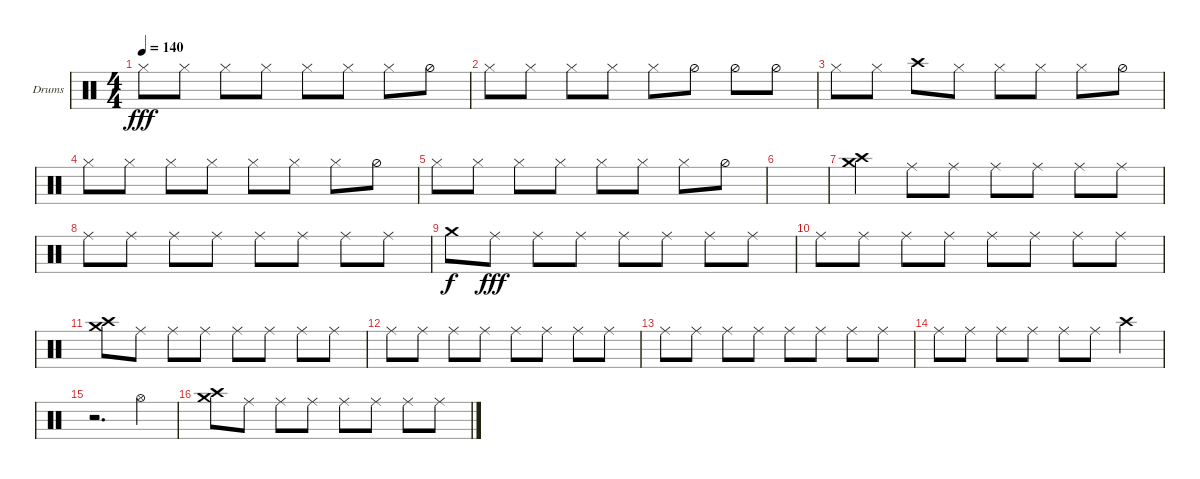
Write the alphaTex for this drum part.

\defaultSystemsLayout 4
\bracketExtendMode groupsimilarinstruments
\firstSystemTrackNameOrientation horizontal
\otherSystemsTrackNameOrientation horizontal
\track ("Helders" "Drums") {instrument percussion}
\staff {score}
\articulation defaults
\ts (4 4)
\tempo 140
\clef neutral
\ks c "Hi-Hat (closed)".8{dy fff} "Hi-Hat (closed)".8 "Hi-Hat (closed)".8 "Hi-Hat (closed)".8 "Hi-Hat (closed)".8 "Hi-Hat (closed)".8 "Hi-Hat (closed)".8 "Hi-Hat (half)".8
|
"Hi-Hat (closed)".8 "Hi-Hat (closed)".8 "Hi-Hat (closed)".8 "Hi-Hat (closed)".8 "Hi-Hat (closed)".8 "Hi-Hat (half)".8 "Hi-Hat (half)".8 "Hi-Hat (half)".8 |
"Hi-Hat (closed)".8 "Hi-Hat (closed)".8 "Crash high (hit)".8 "Hi-Hat (closed)".8 "Hi-Hat (closed)".8 "Hi-Hat (closed)".8 "Hi-Hat (closed)".8 "Hi-Hat (half)".8 |
"Hi-Hat (closed)".8 "Hi-Hat (closed)".8 "Hi-Hat (closed)".8 "Hi-Hat (closed)".8 "Hi-Hat (closed)".8 "Hi-Hat (closed)".8 "Hi-Hat (closed)".8 "Hi-Hat (half)".8 |
"Hi-Hat (closed)".8 "Hi-Hat (closed)".8 "Hi-Hat (closed)".8 "Hi-Hat (closed)".8 "Hi-Hat (closed)".8 "Hi-Hat (closed)".8 "Hi-Hat (closed)".8 "Hi-Hat (half)".8 |
|
("Crash high (hit)" "Crash medium (hit)").4 "Ride (middle)".8 "Ride (middle)".8 "Ride (middle)".8 "Ride (middle)".8 "Ride (middle)".8 "Ride (middle)".8 |
"Ride (middle)".8 "Ride (middle)".8 "Ride (middle)".8 "Ride (middle)".8 "Ride (middle)".8 "Ride (middle)".8 "Ride (middle)".8 "Ride (middle)".8 |
"Crash medium (hit)".8{dy f} "Ride (middle)".8{dy fff} "Ride (middle)".8 "Ride (middle)".8 "Ride (middle)".8 "Ride (middle)".8 "Ride (middle)".8 "Ride (middle)".8 |
"Ride (middle)".8 "Ride (middle)".8 "Ride (middle)".8 "Ride (middle)".8 "Ride (middle)".8 "Ride (middle)".8 "Ride (middle)".8 "Ride (middle)".8 |
("Crash high (hit)" "Crash medium (hit)").8 "Ride (middle)".8 "Ride (middle)".8 "Ride (middle)".8 "Ride (middle)".8 "Ride (middle)".8 "Ride (middle)".8 "Ride (middle)".8 |
"Ride (middle)".8 "Ride (middle)".8 "Ride (middle)".8 "Ride (middle)".8 "Ride (middle)".8 "Ride (middle)".8 "Ride (middle)".8 "Ride (middle)".8 |
"Ride (middle)".8 "Ride (middle)".8 "Ride (middle)".8 "Ride (middle)".8 "Ride (middle)".8 "Ride (middle)".8 "Ride (middle)".8 "Ride (middle)".8 |
"Ride (middle)".8 "Ride (middle)".8 "Ride (middle)".8 "Ride (middle)".8 "Ride (middle)".8 "Ride (middle)".8 "Crash high (hit)".4 |
r.2{d} "Hi-Hat (open)".4 |
("Crash high (hit)" "Crash medium (hit)").8 "Ride (middle)".8 "Ride (middle)".8 "Ride (middle)".8 "Ride (middle)".8 "Ride (middle)".8 "Ride (middle)".8 "Ride (middle)".8
